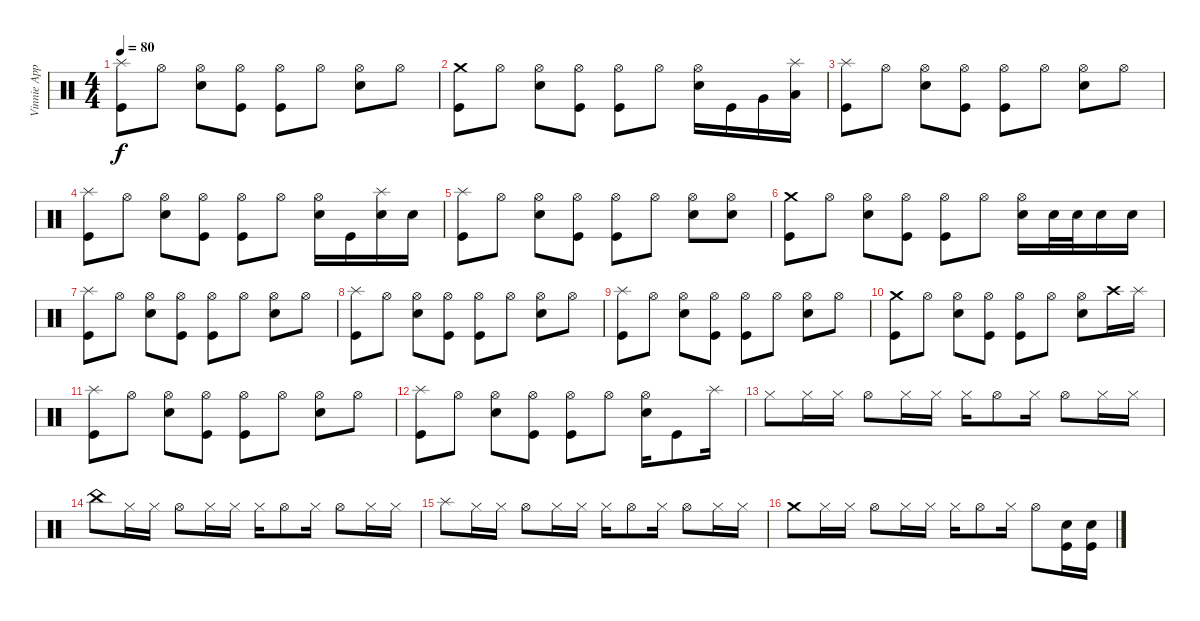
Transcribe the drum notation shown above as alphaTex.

\track ("Vinnie Appice (drums)" "Vinnie App") {instrument percussion}
\staff {score}
\articulation defaults
\ts (4 4)
\tempo 80
\clef neutral
\ks c
("Splash (hit)" "Kick (hit)").8{dy f} "Hi-Hat (open)".8 ("Hi-Hat (open)" "Snare (hit) 2").8 ("Hi-Hat (open)" "Kick (hit)").8 ("Hi-Hat (open)" "Kick (hit)").8 "Hi-Hat (open)".8 ("Hi-Hat (open)" "Snare (hit) 2").8 "Hi-Hat (open)".8 |
("Crash medium (hit)" "Kick (hit)").8 "Hi-Hat (open)".8 ("Hi-Hat (open)" "Snare (hit) 2").8 ("Hi-Hat (open)" "Kick (hit)").8 ("Hi-Hat (open)" "Kick (hit)").8 "Hi-Hat (open)".8 ("Hi-Hat (open)" "Snare (hit) 2").16 "Kick (hit)".16 "Very Low Tom (hit)".16 ("Splash (hit)" "Low Tom (hit)").16 |
("Splash (hit)" "Kick (hit)").8 "Hi-Hat (open)".8 ("Hi-Hat (open)" "Snare (hit) 2").8 ("Hi-Hat (open)" "Kick (hit)").8 ("Hi-Hat (open)" "Kick (hit)").8 "Hi-Hat (open)".8 ("Hi-Hat (open)" "Snare (hit) 2").8 "Hi-Hat (open)".8 |
("Splash (hit)" "Kick (hit)").8 "Hi-Hat (open)".8 ("Hi-Hat (open)" "Snare (hit) 2").8 ("Hi-Hat (open)" "Kick (hit)").8 ("Hi-Hat (open)" "Kick (hit)").8 "Hi-Hat (open)".8 ("Hi-Hat (open)" "Snare (hit) 2").16 "Kick (hit)".16 ("Splash (hit)" "Snare (hit) 2").16 "Snare (hit) 2".16 |
("Splash (hit)" "Kick (hit)").8 "Hi-Hat (open)".8 ("Hi-Hat (open)" "Snare (hit) 2").8 ("Hi-Hat (open)" "Kick (hit)").8 ("Hi-Hat (open)" "Kick (hit)").8 "Hi-Hat (open)".8 ("Hi-Hat (open)" "Snare (hit) 2").8 ("Hi-Hat (open)" "Snare (hit) 2").8 |
("Crash medium (hit)" "Kick (hit)").8 "Hi-Hat (open)".8 ("Hi-Hat (open)" "Snare (hit) 2").8 ("Hi-Hat (open)" "Kick (hit)").8 ("Hi-Hat (open)" "Kick (hit)").8 "Hi-Hat (open)".8 ("Hi-Hat (open)" "Snare (hit) 2").16 "Snare (hit) 2".32 "Snare (hit) 2".32 "Snare (hit) 2".16 "Snare (hit) 2".16 |
("Splash (hit)" "Kick (hit)").8 "Hi-Hat (open)".8 ("Hi-Hat (open)" "Snare (hit) 2").8 ("Hi-Hat (open)" "Kick (hit)").8 ("Hi-Hat (open)" "Kick (hit)").8 "Hi-Hat (open)".8 ("Hi-Hat (open)" "Snare (hit) 2").8 "Hi-Hat (open)".8 |
("Splash (hit)" "Kick (hit)").8 "Hi-Hat (open)".8 ("Hi-Hat (open)" "Snare (hit) 2").8 ("Hi-Hat (open)" "Kick (hit)").8 ("Hi-Hat (open)" "Kick (hit)").8 "Hi-Hat (open)".8 ("Hi-Hat (open)" "Snare (hit) 2").8 "Hi-Hat (open)".8 |
("Splash (hit)" "Kick (hit)").8 "Hi-Hat (open)".8 ("Hi-Hat (open)" "Snare (hit) 2").8 ("Hi-Hat (open)" "Kick (hit)").8 ("Hi-Hat (open)" "Kick (hit)").8 "Hi-Hat (open)".8 ("Hi-Hat (open)" "Snare (hit) 2").8 "Hi-Hat (open)".8 |
("Crash medium (hit)" "Kick (hit)").8 "Hi-Hat (open)".8 ("Hi-Hat (open)" "Snare (hit) 2").8 ("Hi-Hat (open)" "Kick (hit)").8 ("Hi-Hat (open)" "Kick (hit)").8 "Hi-Hat (open)".8 ("Hi-Hat (open)" "Snare (hit) 2").8 "Crash high (hit)".16 "Splash (hit)".16 |
("Splash (hit)" "Kick (hit)").8 "Hi-Hat (open)".8 ("Hi-Hat (open)" "Snare (hit) 2").8 ("Hi-Hat (open)" "Kick (hit)").8 ("Hi-Hat (open)" "Kick (hit)").8 "Hi-Hat (open)".8 ("Hi-Hat (open)" "Snare (hit) 2").8 "Hi-Hat (open)".8 |
("Splash (hit)" "Kick (hit)").8 "Hi-Hat (open)".8 ("Hi-Hat (open)" "Snare (hit) 2").8 ("Hi-Hat (open)" "Kick (hit)").8 ("Hi-Hat (open)" "Kick (hit)").8 "Hi-Hat (open)".8 ("Hi-Hat (open)" "Snare (hit) 2").16 "Kick (hit)".8 "Splash (hit)".16 |
"Hi-Hat (closed)".8 "Hi-Hat (closed)".16 "Hi-Hat (closed)".16 "Hi-Hat (open)".8 "Hi-Hat (closed)".16 "Hi-Hat (closed)".16 "Hi-Hat (closed)".16 "Hi-Hat (open)".8 "Hi-Hat (closed)".16 "Hi-Hat (open)".8 "Hi-Hat (closed)".16 "Hi-Hat (closed)".16 |
"China (hit)".8 "Hi-Hat (closed)".16 "Hi-Hat (closed)".16 "Hi-Hat (open)".8 "Hi-Hat (closed)".16 "Hi-Hat (closed)".16 "Hi-Hat (closed)".16 "Hi-Hat (open)".8 "Hi-Hat (closed)".16 "Hi-Hat (open)".8 "Hi-Hat (closed)".16 "Hi-Hat (closed)".16 |
"Splash (hit)".8 "Hi-Hat (closed)".16 "Hi-Hat (closed)".16 "Hi-Hat (open)".8 "Hi-Hat (closed)".16 "Hi-Hat (closed)".16 "Hi-Hat (closed)".16 "Hi-Hat (open)".8 "Hi-Hat (closed)".16 "Hi-Hat (open)".8 "Hi-Hat (closed)".16 "Hi-Hat (closed)".16 |
"Crash medium (hit)".8 "Hi-Hat (closed)".16 "Hi-Hat (closed)".16 "Hi-Hat (open)".8 "Hi-Hat (closed)".16 "Hi-Hat (closed)".16 "Hi-Hat (closed)".16 "Hi-Hat (open)".8 "Hi-Hat (closed)".16 "Hi-Hat (open)".8 ("Snare (hit) 2" "Kick (hit)").16 ("Snare (hit) 2" "Kick (hit)").16
